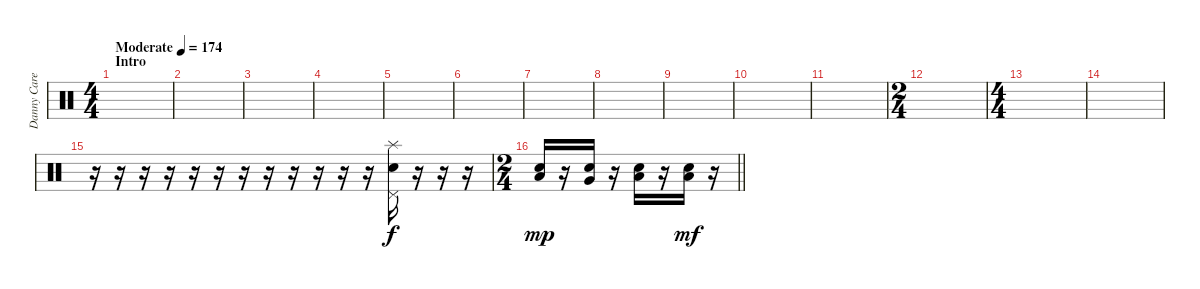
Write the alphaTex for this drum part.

\track ("Danny Carey" "Danny Care") {instrument percussion}
\staff {score}
\articulation defaults
\ts (4 4)
\section ("" "Intro")
\tempo (174 "Moderate")
\clef neutral
\ks c
|
|
|
|
|
|
|
|
|
|
|
\ts (2 4)
|
\ts (4 4)
|
|
r.16 r.16 r.16 r.16 r.16 r.16 r.16 r.16 r.16 r.16 r.16 r.16 ("Splash (hit)" "Pedal Hi-Hat (hit)" "Snare (hit) 2").16 r.16 r.16 r.16 |
\ts (2 4)
\barLineRight lightlight
("Low Floor Tom (hit)" "Snare (hit) 2").16{dy mp} r.16 ("Very Low Tom (hit)" "Snare (hit) 2").16 r.16 ("Low Tom (hit)" "Snare (hit) 2").16 r.16 ("Low Tom (hit)" "Snare (hit) 2").16{dy mf} r.16
